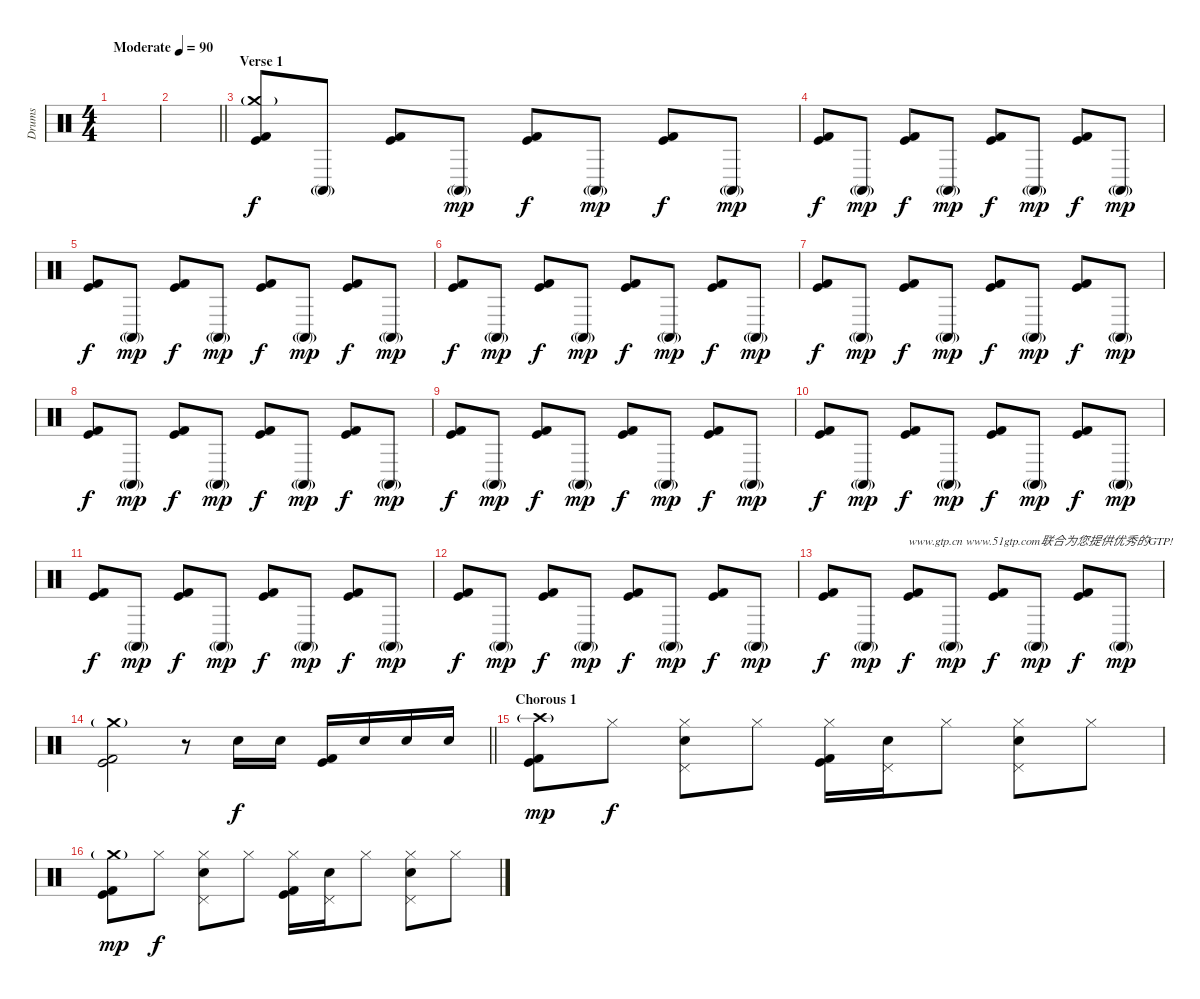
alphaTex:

\track ("Drums" "Drums") {instrument percussion}
\staff {score}
\articulation defaults
\ts (4 4)
\tempo (90 "Moderate")
\clef neutral
\ks c
|
\barLineRight lightlight
|
\section ("" "Verse 1")
("Crash medium (hit)"{g} "Kick (hit)" "Kick (hit) 2").8 "Conga high (mute)"{g}.8 ("Kick (hit)" "Kick (hit) 2").8{dy f} "Conga high (mute)"{g}.8{dy mp} ("Kick (hit)" "Kick (hit) 2").8{dy f} "Conga high (mute)"{g}.8{dy mp} ("Kick (hit)" "Kick (hit) 2").8{dy f} "Conga high (mute)"{g}.8{dy mp} |
("Kick (hit)" "Kick (hit) 2").8{dy f} "Conga high (mute)"{g}.8{dy mp} ("Kick (hit)" "Kick (hit) 2").8{dy f} "Conga high (mute)"{g}.8{dy mp} ("Kick (hit)" "Kick (hit) 2").8{dy f} "Conga high (mute)"{g}.8{dy mp} ("Kick (hit)" "Kick (hit) 2").8{dy f} "Conga high (mute)"{g}.8{dy mp} |
("Kick (hit)" "Kick (hit) 2").8{dy f} "Conga high (mute)"{g}.8{dy mp} ("Kick (hit)" "Kick (hit) 2").8{dy f} "Conga high (mute)"{g}.8{dy mp} ("Kick (hit)" "Kick (hit) 2").8{dy f} "Conga high (mute)"{g}.8{dy mp} ("Kick (hit)" "Kick (hit) 2").8{dy f} "Conga high (mute)"{g}.8{dy mp} |
("Kick (hit)" "Kick (hit) 2").8{dy f} "Conga high (mute)"{g}.8{dy mp} ("Kick (hit)" "Kick (hit) 2").8{dy f} "Conga high (mute)"{g}.8{dy mp} ("Kick (hit)" "Kick (hit) 2").8{dy f} "Conga high (mute)"{g}.8{dy mp} ("Kick (hit)" "Kick (hit) 2").8{dy f} "Conga high (mute)"{g}.8{dy mp} |
("Kick (hit)" "Kick (hit) 2").8{dy f} "Conga high (mute)"{g}.8{dy mp} ("Kick (hit)" "Kick (hit) 2").8{dy f} "Conga high (mute)"{g}.8{dy mp} ("Kick (hit)" "Kick (hit) 2").8{dy f} "Conga high (mute)"{g}.8{dy mp} ("Kick (hit)" "Kick (hit) 2").8{dy f} "Conga high (mute)"{g}.8{dy mp} |
("Kick (hit)" "Kick (hit) 2").8{dy f} "Conga high (mute)"{g}.8{dy mp} ("Kick (hit)" "Kick (hit) 2").8{dy f} "Conga high (mute)"{g}.8{dy mp} ("Kick (hit)" "Kick (hit) 2").8{dy f} "Conga high (mute)"{g}.8{dy mp} ("Kick (hit)" "Kick (hit) 2").8{dy f} "Conga high (mute)"{g}.8{dy mp} |
("Kick (hit)" "Kick (hit) 2").8{dy f} "Conga high (mute)"{g}.8{dy mp} ("Kick (hit)" "Kick (hit) 2").8{dy f} "Conga high (mute)"{g}.8{dy mp} ("Kick (hit)" "Kick (hit) 2").8{dy f} "Conga high (mute)"{g}.8{dy mp} ("Kick (hit)" "Kick (hit) 2").8{dy f} "Conga high (mute)"{g}.8{dy mp} |
("Kick (hit)" "Kick (hit) 2").8{dy f} "Conga high (mute)"{g}.8{dy mp} ("Kick (hit)" "Kick (hit) 2").8{dy f} "Conga high (mute)"{g}.8{dy mp} ("Kick (hit)" "Kick (hit) 2").8{dy f} "Conga high (mute)"{g}.8{dy mp} ("Kick (hit)" "Kick (hit) 2").8{dy f} "Conga high (mute)"{g}.8{dy mp} |
("Kick (hit)" "Kick (hit) 2").8{dy f} "Conga high (mute)"{g}.8{dy mp} ("Kick (hit)" "Kick (hit) 2").8{dy f} "Conga high (mute)"{g}.8{dy mp} ("Kick (hit)" "Kick (hit) 2").8{dy f} "Conga high (mute)"{g}.8{dy mp} ("Kick (hit)" "Kick (hit) 2").8{dy f} "Conga high (mute)"{g}.8{dy mp} |
("Kick (hit)" "Kick (hit) 2").8{dy f} "Conga high (mute)"{g}.8{dy mp} ("Kick (hit)" "Kick (hit) 2").8{dy f} "Conga high (mute)"{g}.8{dy mp} ("Kick (hit)" "Kick (hit) 2").8{dy f} "Conga high (mute)"{g}.8{dy mp} ("Kick (hit)" "Kick (hit) 2").8{dy f} "Conga high (mute)"{g}.8{dy mp} |
("Kick (hit)" "Kick (hit) 2").8{dy f} "Conga high (mute)"{g}.8{dy mp} ("Kick (hit)" "Kick (hit) 2").8{txt "www.gtp.cn www.51gtp.com联合为您提供优秀的GTP!" dy f} "Conga high (mute)"{g}.8{dy mp} ("Kick (hit)" "Kick (hit) 2").8{dy f} "Conga high (mute)"{g}.8{dy mp} ("Kick (hit)" "Kick (hit) 2").8{dy f} "Conga high (mute)"{g}.8{dy mp} |
\barLineRight lightlight
("Crash medium (hit)"{g} "Kick (hit)" "Kick (hit) 2").2 r.8 "Electric Snare (hit)".16{dy f} "Electric Snare (hit)".16 ("Kick (hit)" "Kick (hit) 2").16 "Electric Snare (hit)".16 "Electric Snare (hit)".16 "Electric Snare (hit)".16 |
\section ("" "Chorous 1")
("Crash high (hit)"{g} "Kick (hit)" "Kick (hit) 2").8{dy mp} "Hi-Hat (closed)".8{dy f} ("Hi-Hat (closed)" "Pedal Hi-Hat (hit)" "Electric Snare (hit)").8 "Hi-Hat (closed)".8 ("Hi-Hat (closed)" "Kick (hit)" "Kick (hit) 2").16 ("Pedal Hi-Hat (hit)" "Electric Snare (hit)").16 "Hi-Hat (closed)".8 ("Hi-Hat (closed)" "Pedal Hi-Hat (hit)" "Electric Snare (hit)").8 "Hi-Hat (closed)".8 |
("Crash medium (hit)"{g} "Kick (hit)" "Kick (hit) 2").8{dy mp} "Hi-Hat (closed)".8{dy f} ("Hi-Hat (closed)" "Pedal Hi-Hat (hit)" "Electric Snare (hit)").8 "Hi-Hat (closed)".8 ("Hi-Hat (closed)" "Kick (hit)" "Kick (hit) 2").16 ("Pedal Hi-Hat (hit)" "Electric Snare (hit)").16 "Hi-Hat (closed)".8 ("Hi-Hat (closed)" "Pedal Hi-Hat (hit)" "Electric Snare (hit)").8 "Hi-Hat (closed)".8
